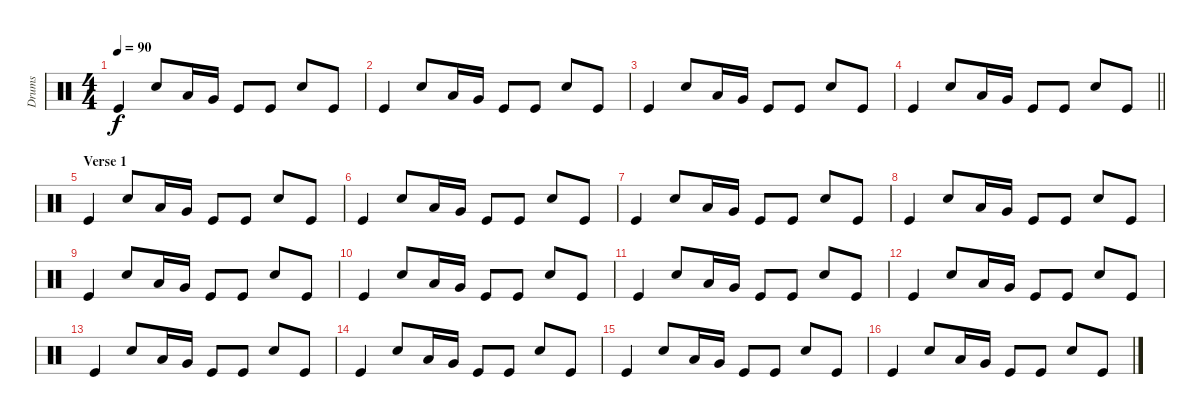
\track ("Drums" "Drums") {instrument percussion}
\staff {score}
\articulation defaults
\ts (4 4)
\tempo 90
\clef neutral
\ks aminor "Kick (hit)".4{dy f} "Hand Clap (hit)".8 "Low Tom (hit)".16 "Very Low Tom (hit)".16 "Kick (hit)".8 "Kick (hit)".8 "Hand Clap (hit)".8 "Kick (hit)".8
|
"Kick (hit)".4 "Hand Clap (hit)".8 "Low Tom (hit)".16 "Very Low Tom (hit)".16 "Kick (hit)".8 "Kick (hit)".8 "Hand Clap (hit)".8 "Kick (hit)".8 |
"Kick (hit)".4 "Hand Clap (hit)".8 "Low Tom (hit)".16 "Very Low Tom (hit)".16 "Kick (hit)".8 "Kick (hit)".8 "Hand Clap (hit)".8 "Kick (hit)".8 |
\barLineRight lightlight "Kick (hit)".4 "Hand Clap (hit)".8 "Low Tom (hit)".16 "Very Low Tom (hit)".16 "Kick (hit)".8 "Kick (hit)".8 "Hand Clap (hit)".8 "Kick (hit)".8
|
\section ("" "Verse 1")
"Kick (hit)".4 "Hand Clap (hit)".8 "Low Tom (hit)".16 "Very Low Tom (hit)".16 "Kick (hit)".8 "Kick (hit)".8 "Hand Clap (hit)".8 "Kick (hit)".8 |
"Kick (hit)".4 "Hand Clap (hit)".8 "Low Tom (hit)".16 "Very Low Tom (hit)".16 "Kick (hit)".8 "Kick (hit)".8 "Hand Clap (hit)".8 "Kick (hit)".8 |
"Kick (hit)".4 "Hand Clap (hit)".8 "Low Tom (hit)".16 "Very Low Tom (hit)".16 "Kick (hit)".8 "Kick (hit)".8 "Hand Clap (hit)".8 "Kick (hit)".8 |
"Kick (hit)".4 "Hand Clap (hit)".8 "Low Tom (hit)".16 "Very Low Tom (hit)".16 "Kick (hit)".8 "Kick (hit)".8 "Hand Clap (hit)".8 "Kick (hit)".8 |
"Kick (hit)".4 "Hand Clap (hit)".8 "Low Tom (hit)".16 "Very Low Tom (hit)".16 "Kick (hit)".8 "Kick (hit)".8 "Hand Clap (hit)".8 "Kick (hit)".8 |
"Kick (hit)".4 "Hand Clap (hit)".8 "Low Tom (hit)".16 "Very Low Tom (hit)".16 "Kick (hit)".8 "Kick (hit)".8 "Hand Clap (hit)".8 "Kick (hit)".8 |
"Kick (hit)".4 "Hand Clap (hit)".8 "Low Tom (hit)".16 "Very Low Tom (hit)".16 "Kick (hit)".8 "Kick (hit)".8 "Hand Clap (hit)".8 "Kick (hit)".8 |
"Kick (hit)".4 "Hand Clap (hit)".8 "Low Tom (hit)".16 "Very Low Tom (hit)".16 "Kick (hit)".8 "Kick (hit)".8 "Hand Clap (hit)".8 "Kick (hit)".8 |
"Kick (hit)".4 "Hand Clap (hit)".8 "Low Tom (hit)".16 "Very Low Tom (hit)".16 "Kick (hit)".8 "Kick (hit)".8 "Hand Clap (hit)".8 "Kick (hit)".8 |
"Kick (hit)".4 "Hand Clap (hit)".8 "Low Tom (hit)".16 "Very Low Tom (hit)".16 "Kick (hit)".8 "Kick (hit)".8 "Hand Clap (hit)".8 "Kick (hit)".8 |
"Kick (hit)".4 "Hand Clap (hit)".8 "Low Tom (hit)".16 "Very Low Tom (hit)".16 "Kick (hit)".8 "Kick (hit)".8 "Hand Clap (hit)".8 "Kick (hit)".8 |
"Kick (hit)".4 "Hand Clap (hit)".8 "Low Tom (hit)".16 "Very Low Tom (hit)".16 "Kick (hit)".8 "Kick (hit)".8 "Hand Clap (hit)".8 "Kick (hit)".8
